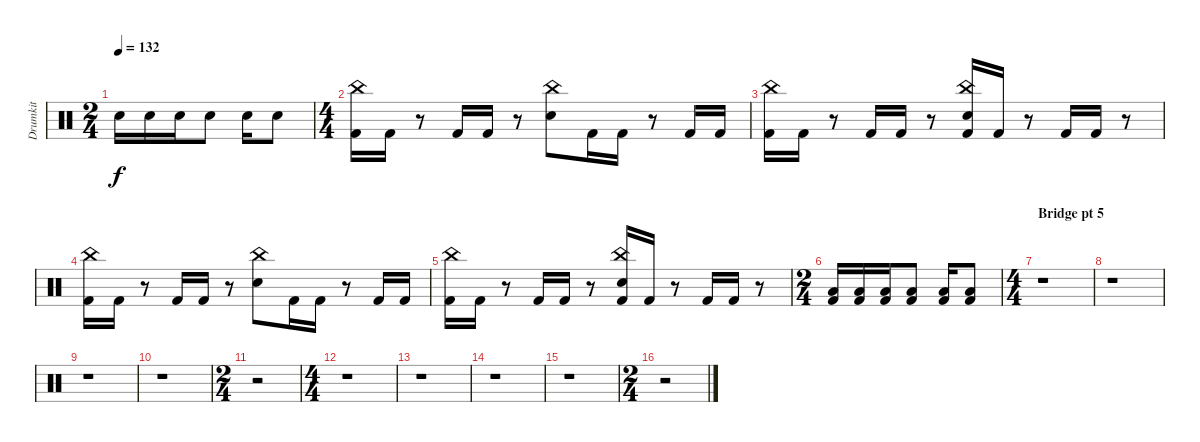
\track ("Drumkit" "Drumkit") {instrument percussion}
\staff {score}
\articulation defaults
\ts (2 4)
\tempo 132
\clef neutral
\ks c "Snare (hit) 2".16{dy f} "Snare (hit) 2".16 "Snare (hit) 2".16 "Snare (hit) 2".8 "Snare (hit) 2".16 "Snare (hit) 2".8
|
\ts (4 4)
("China (hit)" "Kick (hit) 2").16 "Kick (hit) 2".16 r.8 "Kick (hit) 2".16 "Kick (hit) 2".16 r.8 ("China (hit)" "Snare (hit) 2").8 "Kick (hit) 2".16 "Kick (hit) 2".16 r.8 "Kick (hit) 2".16 "Kick (hit) 2".16 |
("China (hit)" "Kick (hit) 2").16 "Kick (hit) 2".16 r.8 "Kick (hit) 2".16 "Kick (hit) 2".16 r.8 ("China (hit)" "Snare (hit) 2" "Kick (hit) 2").16 "Kick (hit) 2".16 r.8 "Kick (hit) 2".16 "Kick (hit) 2".16 r.8 |
("China (hit)" "Kick (hit) 2").16 "Kick (hit) 2".16 r.8 "Kick (hit) 2".16 "Kick (hit) 2".16 r.8 ("China (hit)" "Snare (hit) 2").8 "Kick (hit) 2".16 "Kick (hit) 2".16 r.8 "Kick (hit) 2".16 "Kick (hit) 2".16 |
("China (hit)" "Kick (hit) 2").16 "Kick (hit) 2".16 r.8 "Kick (hit) 2".16 "Kick (hit) 2".16 r.8 ("China (hit)" "Snare (hit) 2" "Kick (hit) 2").16 "Kick (hit) 2".16 r.8 "Kick (hit) 2".16 "Kick (hit) 2".16 r.8 |
\ts (2 4)
("Low Tom (hit)" "Kick (hit) 2").16 ("Low Tom (hit)" "Kick (hit) 2").16 ("Low Tom (hit)" "Kick (hit) 2").16 ("Low Tom (hit)" "Kick (hit) 2").8 ("Low Tom (hit)" "Kick (hit) 2").16 ("Low Tom (hit)" "Kick (hit) 2").8 |
\ts (4 4)
\section ("" "Bridge pt 5")
r.1 |
r.1 |
r.1 |
r.1 |
\ts (2 4)
r.2 |
\ts (4 4)
r.1 |
r.1 |
r.1 |
r.1 |
\ts (2 4)
r.2
